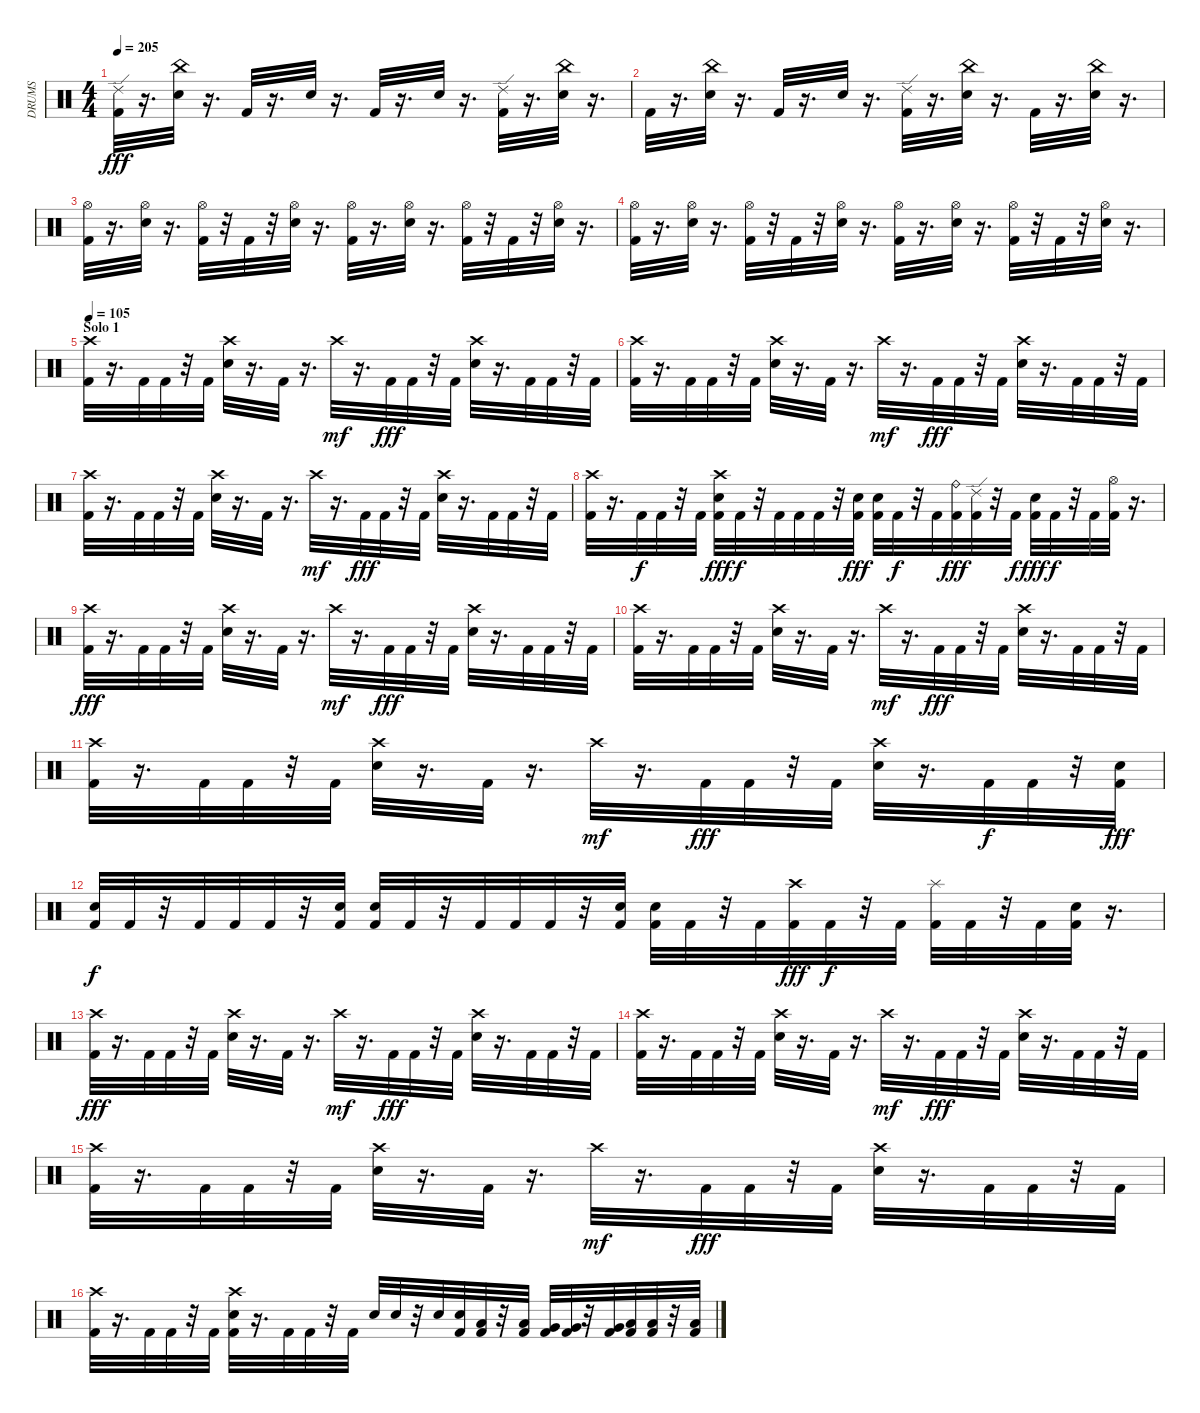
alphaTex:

\track ("DRUMS" "DRUMS") {instrument percussion}
\staff {score}
\articulation defaults
\ts (4 4)
\tempo 205
\clef neutral
\ks c
("Ride (edge) 2" "Kick (hit) 2").32{dy fff} r.16{d} ("China (hit)" "Electric Snare (hit)").32 r.16{d} "Kick (hit) 2".32 r.16{d} "Electric Snare (hit)".32 r.16{d} "Kick (hit) 2".32 r.16{d} "Electric Snare (hit)".32 r.16{d} ("Ride (edge) 2" "Kick (hit) 2").32 r.16{d} ("China (hit)" "Electric Snare (hit)").32 r.16{d} |
"Kick (hit) 2".32 r.16{d} ("China (hit)" "Electric Snare (hit)").32 r.16{d} "Kick (hit) 2".32 r.16{d} "Electric Snare (hit)".32 r.16{d} ("Ride (edge) 2" "Kick (hit) 2").32 r.16{d} ("China (hit)" "Electric Snare (hit)").32 r.16{d} "Kick (hit) 2".32 r.16{d} ("China (hit)" "Electric Snare (hit)").32 r.16{d} |
("Hi-Hat (open)" "Kick (hit) 2").32 r.16{d} ("Hi-Hat (open)" "Electric Snare (hit)").32 r.16{d} ("Hi-Hat (open)" "Kick (hit) 2").32 r.32 "Kick (hit) 2".32 r.32 ("Hi-Hat (open)" "Electric Snare (hit)").32 r.16{d} ("Hi-Hat (open)" "Kick (hit) 2").32 r.16{d} ("Hi-Hat (open)" "Electric Snare (hit)").32 r.16{d} ("Hi-Hat (open)" "Kick (hit) 2").32 r.32 "Kick (hit) 2".32 r.32 ("Hi-Hat (open)" "Electric Snare (hit)").32 r.16{d} |
("Hi-Hat (open)" "Kick (hit) 2").32 r.16{d} ("Hi-Hat (open)" "Electric Snare (hit)").32 r.16{d} ("Hi-Hat (open)" "Kick (hit) 2").32 r.32 "Kick (hit) 2".32 r.32 ("Hi-Hat (open)" "Electric Snare (hit)").32 r.16{d} ("Hi-Hat (open)" "Kick (hit) 2").32 r.16{d} ("Hi-Hat (open)" "Electric Snare (hit)").32 r.16{d} ("Hi-Hat (open)" "Kick (hit) 2").32 r.32 "Kick (hit) 2".32 r.32 ("Hi-Hat (open)" "Electric Snare (hit)").32 r.16{d} |
\section ("" "Solo 1")
\tempo 105
("Crash high (hit)" "Kick (hit) 2").32 r.16{d} "Kick (hit) 2".32 "Kick (hit) 2".32 r.32 "Kick (hit) 2".32 ("Crash high (hit)" "Electric Snare (hit)").32 r.16{d} "Kick (hit) 2".32 r.16{d} "Crash high (hit)".32{dy mf} r.16{d} "Kick (hit) 2".32{dy fff} "Kick (hit) 2".32 r.32 "Kick (hit) 2".32 ("Crash high (hit)" "Electric Snare (hit)").32 r.16{d} "Kick (hit) 2".32 "Kick (hit) 2".32 r.32 "Kick (hit) 2".32 |
("Crash high (hit)" "Kick (hit) 2").32 r.16{d} "Kick (hit) 2".32 "Kick (hit) 2".32 r.32 "Kick (hit) 2".32 ("Crash high (hit)" "Electric Snare (hit)").32 r.16{d} "Kick (hit) 2".32 r.16{d} "Crash high (hit)".32{dy mf} r.16{d} "Kick (hit) 2".32{dy fff} "Kick (hit) 2".32 r.32 "Kick (hit) 2".32 ("Crash high (hit)" "Electric Snare (hit)").32 r.16{d} "Kick (hit) 2".32 "Kick (hit) 2".32 r.32 "Kick (hit) 2".32 |
("Crash high (hit)" "Kick (hit) 2").32 r.16{d} "Kick (hit) 2".32 "Kick (hit) 2".32 r.32 "Kick (hit) 2".32 ("Crash high (hit)" "Electric Snare (hit)").32 r.16{d} "Kick (hit) 2".32 r.16{d} "Crash high (hit)".32{dy mf} r.16{d} "Kick (hit) 2".32{dy fff} "Kick (hit) 2".32 r.32 "Kick (hit) 2".32 ("Crash high (hit)" "Electric Snare (hit)").32 r.16{d} "Kick (hit) 2".32 "Kick (hit) 2".32 r.32 "Kick (hit) 2".32 |
("Crash high (hit)" "Kick (hit) 2").32 r.16{d} "Kick (hit) 2".32{dy f} "Kick (hit) 2".32 r.32 "Kick (hit) 2".32 ("Crash high (hit)" "Electric Snare (hit)" "Kick (hit) 2").32{dy fff} "Kick (hit) 2".32{dy f} r.32 "Kick (hit) 2".32 "Kick (hit) 2".32 "Kick (hit) 2".32 r.32 ("Electric Snare (hit)" "Kick (hit) 2").32{dy fff} ("Electric Snare (hit)" "Kick (hit) 2").32 "Kick (hit) 2".32{dy f} r.32 "Kick (hit) 2".32 ("Ride (bell)" "Kick (hit) 2").32{dy fff} ("Ride (edge) 2" "Kick (hit) 2").32 r.32 "Kick (hit) 2".32{dy f} ("Electric Snare (hit)" "Kick (hit) 2").32{dy fff} "Kick (hit) 2".32{dy f} r.32 "Kick (hit) 2".32 ("Hi-Hat (open)" "Kick (hit) 2").32 r.16{d} |
("Crash high (hit)" "Kick (hit) 2").32{dy fff} r.16{d} "Kick (hit) 2".32 "Kick (hit) 2".32 r.32 "Kick (hit) 2".32 ("Crash high (hit)" "Electric Snare (hit)").32 r.16{d} "Kick (hit) 2".32 r.16{d} "Crash high (hit)".32{dy mf} r.16{d} "Kick (hit) 2".32{dy fff} "Kick (hit) 2".32 r.32 "Kick (hit) 2".32 ("Crash high (hit)" "Electric Snare (hit)").32 r.16{d} "Kick (hit) 2".32 "Kick (hit) 2".32 r.32 "Kick (hit) 2".32 |
("Crash high (hit)" "Kick (hit) 2").32 r.16{d} "Kick (hit) 2".32 "Kick (hit) 2".32 r.32 "Kick (hit) 2".32 ("Crash high (hit)" "Electric Snare (hit)").32 r.16{d} "Kick (hit) 2".32 r.16{d} "Crash high (hit)".32{dy mf} r.16{d} "Kick (hit) 2".32{dy fff} "Kick (hit) 2".32 r.32 "Kick (hit) 2".32 ("Crash high (hit)" "Electric Snare (hit)").32 r.16{d} "Kick (hit) 2".32 "Kick (hit) 2".32 r.32 "Kick (hit) 2".32 |
("Crash high (hit)" "Kick (hit) 2").32 r.16{d} "Kick (hit) 2".32 "Kick (hit) 2".32 r.32 "Kick (hit) 2".32 ("Crash high (hit)" "Electric Snare (hit)").32 r.16{d} "Kick (hit) 2".32 r.16{d} "Crash high (hit)".32{dy mf} r.16{d} "Kick (hit) 2".32{dy fff} "Kick (hit) 2".32 r.32 "Kick (hit) 2".32 ("Crash high (hit)" "Electric Snare (hit)").32 r.16{d} "Kick (hit) 2".32{dy f} "Kick (hit) 2".32 r.32 ("Electric Snare (hit)" "Kick (hit) 2").32{dy fff} |
("Electric Snare (hit)" "Kick (hit) 2").32{dy f} "Kick (hit) 2".32 r.32 "Kick (hit) 2".32 "Kick (hit) 2".32 "Kick (hit) 2".32 r.32 ("Electric Snare (hit)" "Kick (hit) 2").32 ("Electric Snare (hit)" "Kick (hit) 2").32 "Kick (hit) 2".32 r.32 "Kick (hit) 2".32 "Kick (hit) 2".32 "Kick (hit) 2".32 r.32 ("Electric Snare (hit)" "Kick (hit) 2").32 ("Electric Snare (hit)" "Kick (hit) 2").32 "Kick (hit) 2".32 r.32 "Kick (hit) 2".32 ("Crash high (hit)" "Kick (hit) 2").32{dy fff} "Kick (hit) 2".32{dy f} r.32 "Kick (hit) 2".32 ("Splash (hit)" "Kick (hit) 2").32 "Kick (hit) 2".32 r.32 "Kick (hit) 2".32 ("Electric Snare (hit)" "Kick (hit) 2").32 r.16{d} |
("Crash high (hit)" "Kick (hit) 2").32{dy fff} r.16{d} "Kick (hit) 2".32 "Kick (hit) 2".32 r.32 "Kick (hit) 2".32 ("Crash high (hit)" "Electric Snare (hit)").32 r.16{d} "Kick (hit) 2".32 r.16{d} "Crash high (hit)".32{dy mf} r.16{d} "Kick (hit) 2".32{dy fff} "Kick (hit) 2".32 r.32 "Kick (hit) 2".32 ("Crash high (hit)" "Electric Snare (hit)").32 r.16{d} "Kick (hit) 2".32 "Kick (hit) 2".32 r.32 "Kick (hit) 2".32 |
("Crash high (hit)" "Kick (hit) 2").32 r.16{d} "Kick (hit) 2".32 "Kick (hit) 2".32 r.32 "Kick (hit) 2".32 ("Crash high (hit)" "Electric Snare (hit)").32 r.16{d} "Kick (hit) 2".32 r.16{d} "Crash high (hit)".32{dy mf} r.16{d} "Kick (hit) 2".32{dy fff} "Kick (hit) 2".32 r.32 "Kick (hit) 2".32 ("Crash high (hit)" "Electric Snare (hit)").32 r.16{d} "Kick (hit) 2".32 "Kick (hit) 2".32 r.32 "Kick (hit) 2".32 |
("Crash high (hit)" "Kick (hit) 2").32 r.16{d} "Kick (hit) 2".32 "Kick (hit) 2".32 r.32 "Kick (hit) 2".32 ("Crash high (hit)" "Electric Snare (hit)").32 r.16{d} "Kick (hit) 2".32 r.16{d} "Crash high (hit)".32{dy mf} r.16{d} "Kick (hit) 2".32{dy fff} "Kick (hit) 2".32 r.32 "Kick (hit) 2".32 ("Crash high (hit)" "Electric Snare (hit)").32 r.16{d} "Kick (hit) 2".32 "Kick (hit) 2".32 r.32 "Kick (hit) 2".32 |
("Crash high (hit)" "Kick (hit) 2").32 r.16{d} "Kick (hit) 2".32 "Kick (hit) 2".32 r.32 "Kick (hit) 2".32 ("Crash high (hit)" "Electric Snare (hit)" "Kick (hit) 2").32 r.16{d} "Kick (hit) 2".32 "Kick (hit) 2".32 r.32 "Kick (hit) 2".32 "Electric Snare (hit)".32 "Electric Snare (hit)".32 r.32 "Electric Snare (hit)".32 ("Electric Snare (hit)" "Kick (hit) 2").32 ("Low Tom (hit)" "Kick (hit) 2").32 r.32 ("Low Tom (hit)" "Kick (hit) 2").32 ("Very Low Tom (hit)" "Kick (hit) 2").32 ("Very Low Tom (hit)" "Kick (hit) 2").32 r.32 ("Very Low Tom (hit)" "Kick (hit) 2").32 ("Low Floor Tom (hit)" "Kick (hit) 2").32 ("Low Floor Tom (hit)" "Kick (hit) 2").32 r.32 ("Low Floor Tom (hit)" "Kick (hit) 2").32
